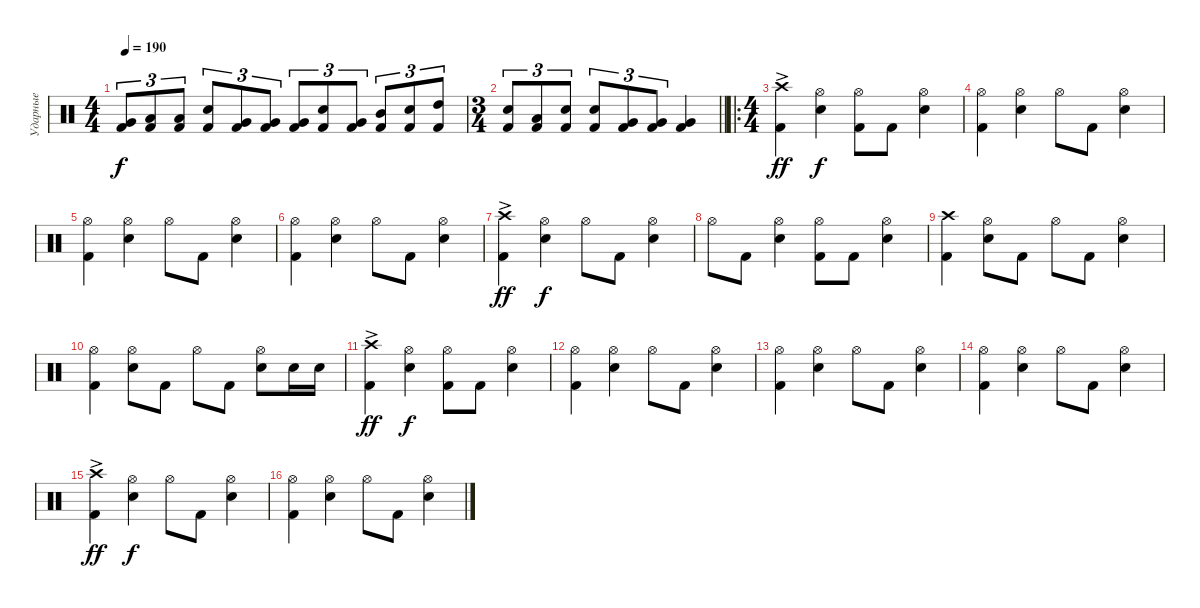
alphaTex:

\track ("Ударные" "Ударные") {instrument percussion}
\staff {score}
\articulation defaults
\ts (4 4)
\tempo 190
\clef neutral
\ks c
("Kick (hit) 2" "Very Low Tom (hit)").8{tu (3 2) dy f} ("Kick (hit) 2" "Low Tom (hit)").8{tu (3 2)} ("Kick (hit) 2" "Low Tom (hit)").8{tu (3 2)} ("Kick (hit) 2" "Snare (hit) 2").8{tu (3 2)} ("Kick (hit) 2" "Very Low Tom (hit)").8{tu (3 2)} ("Kick (hit) 2" "Very Low Tom (hit)").8{tu (3 2)} ("Kick (hit) 2" "Very Low Tom (hit)").8{tu (3 2)} ("Kick (hit) 2" "Snare (hit) 2").8{tu (3 2)} ("Kick (hit) 2" "Very Low Tom (hit)").8{tu (3 2)} ("Kick (hit) 2" "Mid Tom (hit)").8{tu (3 2)} ("Kick (hit) 2" "Snare (hit) 2").8{tu (3 2)} ("Kick (hit) 2" "High Tom (hit)").8{tu (3 2)} |
\ts (3 4)
\barLineRight lightlight
("Kick (hit) 2" "Snare (hit) 2").8{tu (3 2)} ("Kick (hit) 2" "Low Tom (hit)").8{tu (3 2)} ("Kick (hit) 2" "Snare (hit) 2").8{tu (3 2)} ("Kick (hit) 2" "Snare (hit) 2").8{tu (3 2)} ("Kick (hit) 2" "Very Low Tom (hit)").8{tu (3 2)} ("Kick (hit) 2" "Very Low Tom (hit)").8{tu (3 2)} ("Kick (hit) 2" "Very Low Tom (hit)").4 |
\ro
\ts (4 4)
("Kick (hit) 2" "Crash high (hit)"{ac}).4{dy ff} ("Snare (hit) 2" "Hi-Hat (open)").4{dy f} ("Kick (hit) 2" "Hi-Hat (open)").8 "Kick (hit) 2".8 ("Snare (hit) 2" "Hi-Hat (open)").4 |
("Kick (hit) 2" "Hi-Hat (open)").4 ("Snare (hit) 2" "Hi-Hat (open)").4 "Hi-Hat (open)".8 "Kick (hit) 2".8 ("Snare (hit) 2" "Hi-Hat (open)").4 |
("Kick (hit) 2" "Hi-Hat (open)").4 ("Snare (hit) 2" "Hi-Hat (open)").4 "Hi-Hat (open)".8 "Kick (hit) 2".8 ("Snare (hit) 2" "Hi-Hat (open)").4 |
("Kick (hit) 2" "Hi-Hat (open)").4 ("Snare (hit) 2" "Hi-Hat (open)").4 "Hi-Hat (open)".8 "Kick (hit) 2".8 ("Snare (hit) 2" "Hi-Hat (open)").4 |
("Kick (hit) 2" "Crash high (hit)"{ac}).4{dy ff} ("Snare (hit) 2" "Hi-Hat (open)").4{dy f} "Hi-Hat (open)".8 "Kick (hit) 2".8 ("Snare (hit) 2" "Hi-Hat (open)").4 |
"Hi-Hat (open)".8 "Kick (hit) 2".8 ("Snare (hit) 2" "Hi-Hat (open)").4 ("Kick (hit) 2" "Hi-Hat (open)").8 "Kick (hit) 2".8 ("Snare (hit) 2" "Hi-Hat (open)").4 |
("Kick (hit) 2" "Crash high (hit)").4 ("Snare (hit) 2" "Hi-Hat (open)").8 "Kick (hit) 2".8 "Hi-Hat (open)".8 "Kick (hit) 2".8 ("Snare (hit) 2" "Hi-Hat (open)").4 |
("Kick (hit) 2" "Hi-Hat (open)").4 ("Snare (hit) 2" "Hi-Hat (open)").8 "Kick (hit) 2".8 "Hi-Hat (open)".8 "Kick (hit) 2".8 ("Snare (hit) 2" "Hi-Hat (open)").8 "Snare (hit) 2".16 "Snare (hit) 2".16 |
("Kick (hit) 2" "Crash high (hit)"{ac}).4{dy ff} ("Snare (hit) 2" "Hi-Hat (open)").4{dy f} ("Kick (hit) 2" "Hi-Hat (open)").8 "Kick (hit) 2".8 ("Snare (hit) 2" "Hi-Hat (open)").4 |
("Kick (hit) 2" "Hi-Hat (open)").4 ("Snare (hit) 2" "Hi-Hat (open)").4 "Hi-Hat (open)".8 "Kick (hit) 2".8 ("Snare (hit) 2" "Hi-Hat (open)").4 |
("Kick (hit) 2" "Hi-Hat (open)").4 ("Snare (hit) 2" "Hi-Hat (open)").4 "Hi-Hat (open)".8 "Kick (hit) 2".8 ("Snare (hit) 2" "Hi-Hat (open)").4 |
("Kick (hit) 2" "Hi-Hat (open)").4 ("Snare (hit) 2" "Hi-Hat (open)").4 "Hi-Hat (open)".8 "Kick (hit) 2".8 ("Snare (hit) 2" "Hi-Hat (open)").4 |
("Kick (hit) 2" "Crash high (hit)"{ac}).4{dy ff} ("Snare (hit) 2" "Hi-Hat (open)").4{dy f} "Hi-Hat (open)".8 "Kick (hit) 2".8 ("Snare (hit) 2" "Hi-Hat (open)").4 |
("Kick (hit) 2" "Hi-Hat (open)").4 ("Snare (hit) 2" "Hi-Hat (open)").4 "Hi-Hat (open)".8 "Kick (hit) 2".8 ("Snare (hit) 2" "Hi-Hat (open)").4
